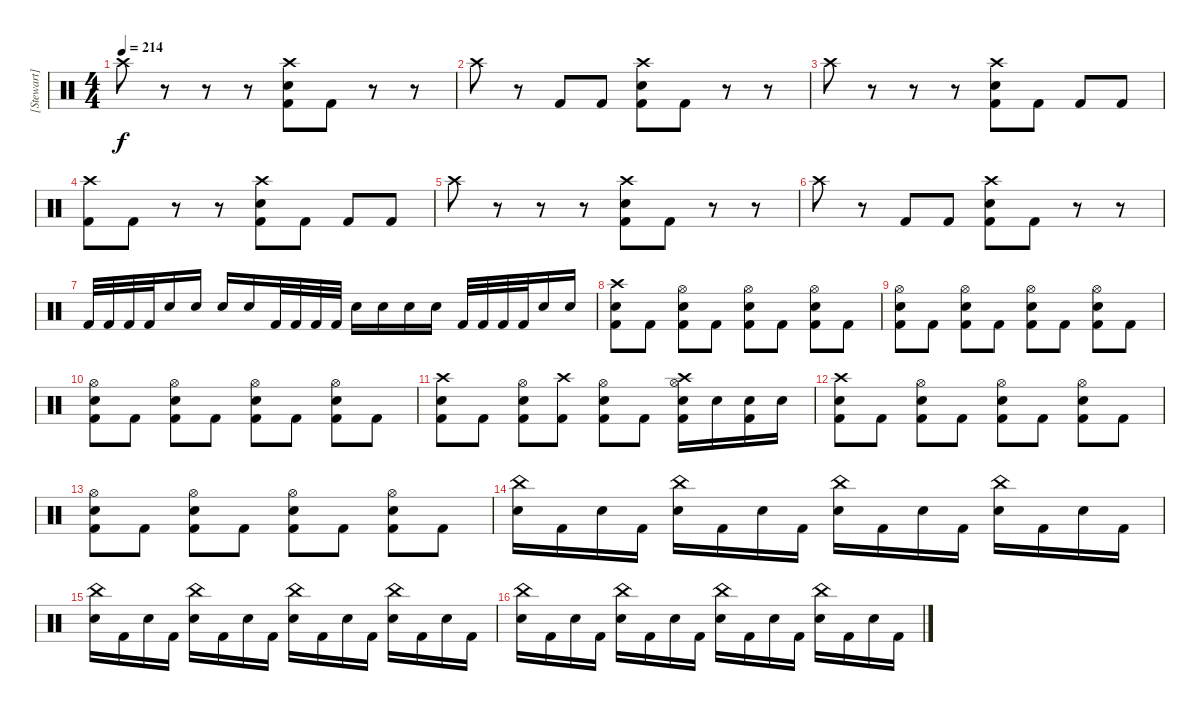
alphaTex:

\track ("[Stewart]" "[Stewart]") {instrument percussion}
\staff {score}
\articulation defaults
\ts (4 4)
\tempo 214
\clef neutral
\ks c "Crash high (hit)".8{dy f}
r.8 r.8 r.8 ("Crash high (hit)" "Electric Snare (hit)" "Kick (hit) 2").8 "Kick (hit) 2".8 r.8 r.8 |
"Crash high (hit)".8 r.8 "Kick (hit) 2".8 "Kick (hit) 2".8 ("Crash high (hit)" "Electric Snare (hit)" "Kick (hit) 2").8 "Kick (hit) 2".8 r.8 r.8 |
"Crash high (hit)".8 r.8 r.8 r.8 ("Crash high (hit)" "Electric Snare (hit)" "Kick (hit) 2").8 "Kick (hit) 2".8 "Kick (hit) 2".8 "Kick (hit) 2".8 |
("Crash high (hit)" "Kick (hit) 2").8 "Kick (hit) 2".8 r.8 r.8 ("Crash high (hit)" "Electric Snare (hit)" "Kick (hit) 2").8 "Kick (hit) 2".8 "Kick (hit) 2".8 "Kick (hit) 2".8 |
"Crash high (hit)".8 r.8 r.8 r.8 ("Crash high (hit)" "Electric Snare (hit)" "Kick (hit) 2").8 "Kick (hit) 2".8 r.8 r.8 |
"Crash high (hit)".8 r.8 "Kick (hit) 2".8 "Kick (hit) 2".8 ("Crash high (hit)" "Electric Snare (hit)" "Kick (hit) 2").8 "Kick (hit) 2".8 r.8 r.8 |
"Kick (hit) 2".32 "Kick (hit) 2".32 "Kick (hit) 2".32 "Kick (hit) 2".32 "Electric Snare (hit)".16 "Electric Snare (hit)".16 "Electric Snare (hit)".16 "Electric Snare (hit)".16 "Kick (hit) 2".32 "Kick (hit) 2".32 "Kick (hit) 2".32 "Kick (hit) 2".32 "Electric Snare (hit)".16 "Electric Snare (hit)".16 "Electric Snare (hit)".16 "Electric Snare (hit)".16 "Kick (hit) 2".32 "Kick (hit) 2".32 "Kick (hit) 2".32 "Kick (hit) 2".32 "Electric Snare (hit)".16 "Electric Snare (hit)".16 |
("Crash high (hit)" "Electric Snare (hit)" "Kick (hit) 2").8 "Kick (hit) 2".8 ("Hi-Hat (open)" "Electric Snare (hit)" "Kick (hit) 2").8 "Kick (hit) 2".8 ("Hi-Hat (open)" "Electric Snare (hit)" "Kick (hit) 2").8 "Kick (hit) 2".8 ("Hi-Hat (open)" "Electric Snare (hit)" "Kick (hit) 2").8 "Kick (hit) 2".8 |
("Hi-Hat (open)" "Electric Snare (hit)" "Kick (hit) 2").8 "Kick (hit) 2".8 ("Hi-Hat (open)" "Electric Snare (hit)" "Kick (hit) 2").8 "Kick (hit) 2".8 ("Hi-Hat (open)" "Electric Snare (hit)" "Kick (hit) 2").8 "Kick (hit) 2".8 ("Hi-Hat (open)" "Electric Snare (hit)" "Kick (hit) 2").8 "Kick (hit) 2".8 |
("Hi-Hat (open)" "Electric Snare (hit)" "Kick (hit) 2").8 "Kick (hit) 2".8 ("Hi-Hat (open)" "Electric Snare (hit)" "Kick (hit) 2").8 "Kick (hit) 2".8 ("Hi-Hat (open)" "Electric Snare (hit)" "Kick (hit) 2").8 "Kick (hit) 2".8 ("Hi-Hat (open)" "Electric Snare (hit)" "Kick (hit) 2").8 "Kick (hit) 2".8 |
("Crash high (hit)" "Electric Snare (hit)" "Kick (hit) 2").8 "Kick (hit) 2".8 ("Hi-Hat (open)" "Electric Snare (hit)" "Kick (hit) 2").8 ("Crash high (hit)" "Kick (hit) 2").8 ("Hi-Hat (open)" "Electric Snare (hit)" "Kick (hit) 2").8 "Kick (hit) 2".8 ("Hi-Hat (open)" "Crash high (hit)" "Electric Snare (hit)" "Kick (hit) 2").16 "Electric Snare (hit)".16 ("Electric Snare (hit)" "Kick (hit) 2").16 "Electric Snare (hit)".16 |
("Crash high (hit)" "Electric Snare (hit)" "Kick (hit) 2").8 "Kick (hit) 2".8 ("Hi-Hat (open)" "Electric Snare (hit)" "Kick (hit) 2").8 "Kick (hit) 2".8 ("Hi-Hat (open)" "Electric Snare (hit)" "Kick (hit) 2").8 "Kick (hit) 2".8 ("Hi-Hat (open)" "Electric Snare (hit)" "Kick (hit) 2").8 "Kick (hit) 2".8 |
("Hi-Hat (open)" "Electric Snare (hit)" "Kick (hit) 2").8 "Kick (hit) 2".8 ("Hi-Hat (open)" "Electric Snare (hit)" "Kick (hit) 2").8 "Kick (hit) 2".8 ("Hi-Hat (open)" "Electric Snare (hit)" "Kick (hit) 2").8 "Kick (hit) 2".8 ("Hi-Hat (open)" "Electric Snare (hit)" "Kick (hit) 2").8 "Kick (hit) 2".8 |
("China (hit)" "Electric Snare (hit)").16 "Kick (hit) 2".16 "Electric Snare (hit)".16 "Kick (hit) 2".16 ("China (hit)" "Electric Snare (hit)").16 "Kick (hit) 2".16 "Electric Snare (hit)".16 "Kick (hit) 2".16 ("China (hit)" "Electric Snare (hit)").16 "Kick (hit) 2".16 "Electric Snare (hit)".16 "Kick (hit) 2".16 ("China (hit)" "Electric Snare (hit)").16 "Kick (hit) 2".16 "Electric Snare (hit)".16 "Kick (hit) 2".16 |
("China (hit)" "Electric Snare (hit)").16 "Kick (hit) 2".16 "Electric Snare (hit)".16 "Kick (hit) 2".16 ("China (hit)" "Electric Snare (hit)").16 "Kick (hit) 2".16 "Electric Snare (hit)".16 "Kick (hit) 2".16 ("China (hit)" "Electric Snare (hit)").16 "Kick (hit) 2".16 "Electric Snare (hit)".16 "Kick (hit) 2".16 ("China (hit)" "Electric Snare (hit)").16 "Kick (hit) 2".16 "Electric Snare (hit)".16 "Kick (hit) 2".16 |
("China (hit)" "Electric Snare (hit)").16 "Kick (hit) 2".16 "Electric Snare (hit)".16 "Kick (hit) 2".16 ("China (hit)" "Electric Snare (hit)").16 "Kick (hit) 2".16 "Electric Snare (hit)".16 "Kick (hit) 2".16 ("China (hit)" "Electric Snare (hit)").16 "Kick (hit) 2".16 "Electric Snare (hit)".16 "Kick (hit) 2".16 ("China (hit)" "Electric Snare (hit)").16 "Kick (hit) 2".16 "Electric Snare (hit)".16 "Kick (hit) 2".16
